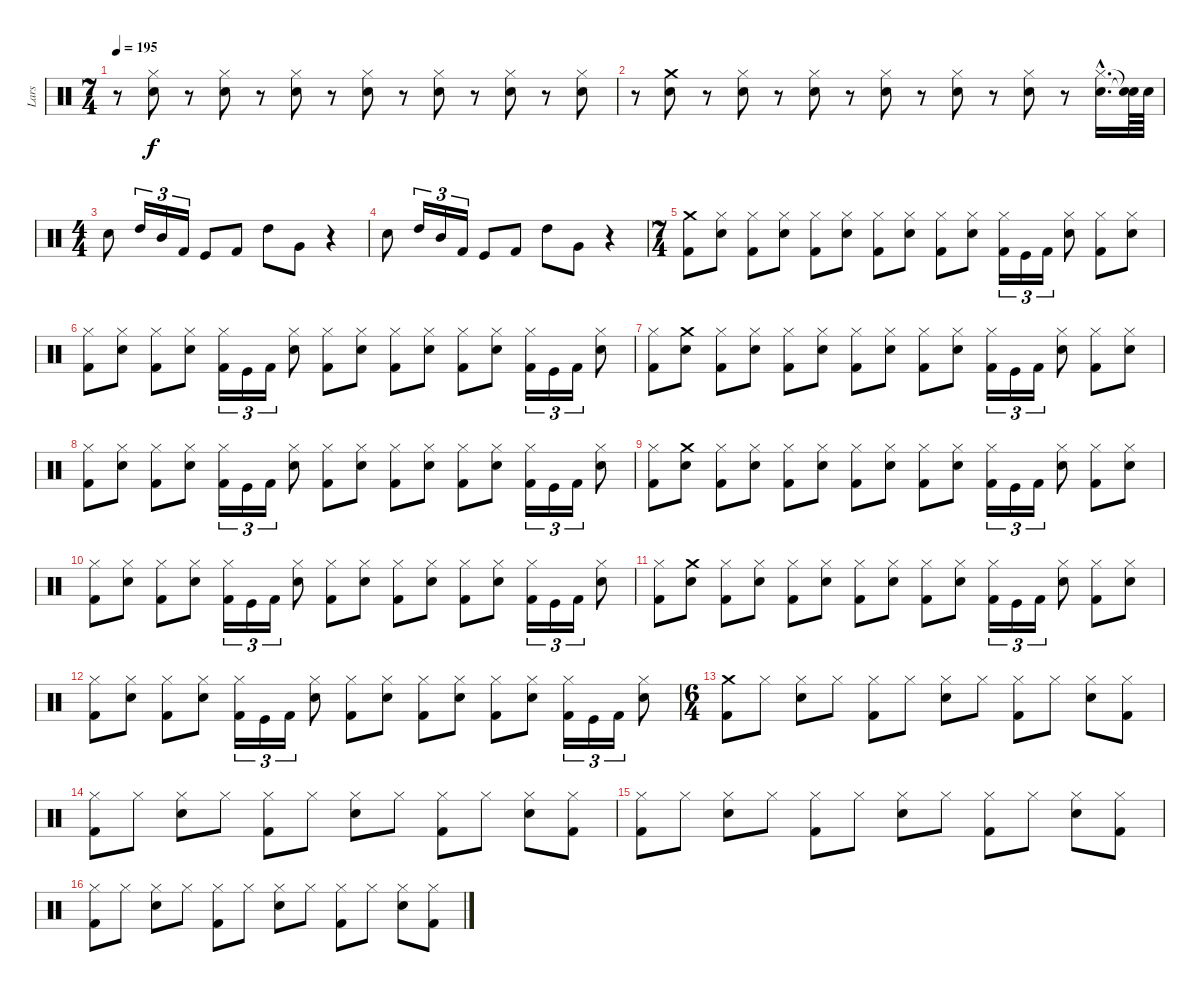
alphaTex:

\track ("Lars" "Lars") {instrument percussion}
\staff {score}
\articulation defaults
\ts (7 4)
\tempo 195
\clef neutral
\ks c
r.8{dy f} ("Snare (hit) 2" "Hi-Hat (closed)").8 r.8 ("Snare (hit) 2" "Hi-Hat (closed)").8 r.8 ("Snare (hit) 2" "Hi-Hat (closed)").8 r.8 ("Snare (hit) 2" "Hi-Hat (closed)").8 r.8 ("Snare (hit) 2" "Hi-Hat (closed)").8 r.8 ("Snare (hit) 2" "Hi-Hat (closed)").8 r.8 ("Snare (hit) 2" "Hi-Hat (closed)").8 |
r.8 ("Crash medium (hit)" "Snare (hit) 2").8 r.8 ("Snare (hit) 2" "Hi-Hat (closed)").8 r.8 ("Snare (hit) 2" "Hi-Hat (closed)").8 r.8 ("Snare (hit) 2" "Hi-Hat (closed)").8 r.8 ("Snare (hit) 2" "Hi-Hat (closed)").8 r.8 ("Snare (hit) 2" "Hi-Hat (closed)").8 r.8 ("Snare (hit) 2"{hac} "Hi-Hat (closed)"{hac}).16{d} ("Snare (hit)"{t} "Snare (hit)"{t}).64 "Snare (hit) 2".64 |
\ts (4 4)
"Snare (hit) 2".8 "High Tom (hit)".16{tu (3 2)} "Mid Tom (hit)".16{tu (3 2)} "Kick (hit) 2".16{tu (3 2)} "Kick (hit)".8 "Kick (hit) 2".8 "High Tom (hit)".8 "Very Low Tom (hit)".8 r.4 |
"Snare (hit) 2".8 "High Tom (hit)".16{tu (3 2)} "Mid Tom (hit)".16{tu (3 2)} "Kick (hit) 2".16{tu (3 2)} "Kick (hit)".8 "Kick (hit) 2".8 "High Tom (hit)".8 "Very Low Tom (hit)".8 r.4 |
\ts (7 4)
("Crash medium (hit)" "Kick (hit) 2").8 ("Snare (hit) 2" "Hi-Hat (closed)").8 ("Hi-Hat (closed)" "Kick (hit) 2").8 ("Snare (hit) 2" "Hi-Hat (closed)").8 ("Hi-Hat (closed)" "Kick (hit) 2").8 ("Snare (hit) 2" "Hi-Hat (closed)").8 ("Hi-Hat (closed)" "Kick (hit) 2").8 ("Snare (hit) 2" "Hi-Hat (closed)").8 ("Hi-Hat (closed)" "Kick (hit) 2").8 ("Snare (hit) 2" "Hi-Hat (closed)").8 ("Hi-Hat (closed)" "Kick (hit) 2").16{tu (3 2)} "Kick (hit)".16{tu (3 2)} "Kick (hit) 2".16{tu (3 2)} ("Snare (hit) 2" "Hi-Hat (closed)").8 ("Hi-Hat (closed)" "Kick (hit) 2").8 ("Snare (hit) 2" "Hi-Hat (closed)").8 |
("Hi-Hat (closed)" "Kick (hit) 2").8 ("Snare (hit) 2" "Hi-Hat (closed)").8 ("Hi-Hat (closed)" "Kick (hit) 2").8 ("Snare (hit) 2" "Hi-Hat (closed)").8 ("Hi-Hat (closed)" "Kick (hit) 2").16{tu (3 2)} "Kick (hit)".16{tu (3 2)} "Kick (hit) 2".16{tu (3 2)} ("Snare (hit) 2" "Hi-Hat (closed)").8 ("Hi-Hat (closed)" "Kick (hit) 2").8 ("Snare (hit) 2" "Hi-Hat (closed)").8 ("Hi-Hat (closed)" "Kick (hit) 2").8 ("Snare (hit) 2" "Hi-Hat (closed)").8 ("Kick (hit) 2" "Hi-Hat (closed)").8 ("Snare (hit) 2" "Hi-Hat (closed)").8 ("Kick (hit) 2" "Hi-Hat (closed)").16{tu (3 2)} "Kick (hit)".16{tu (3 2)} "Kick (hit) 2".16{tu (3 2)} ("Snare (hit) 2" "Hi-Hat (closed)").8 |
("Hi-Hat (closed)" "Kick (hit) 2").8 ("Crash medium (hit)" "Snare (hit) 2").8 ("Hi-Hat (closed)" "Kick (hit) 2").8 ("Snare (hit) 2" "Hi-Hat (closed)").8 ("Hi-Hat (closed)" "Kick (hit) 2").8 ("Snare (hit) 2" "Hi-Hat (closed)").8 ("Hi-Hat (closed)" "Kick (hit) 2").8 ("Snare (hit) 2" "Hi-Hat (closed)").8 ("Hi-Hat (closed)" "Kick (hit) 2").8 ("Snare (hit) 2" "Hi-Hat (closed)").8 ("Hi-Hat (closed)" "Kick (hit) 2").16{tu (3 2)} "Kick (hit)".16{tu (3 2)} "Kick (hit) 2".16{tu (3 2)} ("Snare (hit) 2" "Hi-Hat (closed)").8 ("Hi-Hat (closed)" "Kick (hit) 2").8 ("Snare (hit) 2" "Hi-Hat (closed)").8 |
("Hi-Hat (closed)" "Kick (hit) 2").8 ("Snare (hit) 2" "Hi-Hat (closed)").8 ("Hi-Hat (closed)" "Kick (hit) 2").8 ("Snare (hit) 2" "Hi-Hat (closed)").8 ("Hi-Hat (closed)" "Kick (hit) 2").16{tu (3 2)} "Kick (hit)".16{tu (3 2)} "Kick (hit) 2".16{tu (3 2)} ("Snare (hit) 2" "Hi-Hat (closed)").8 ("Hi-Hat (closed)" "Kick (hit) 2").8 ("Snare (hit) 2" "Hi-Hat (closed)").8 ("Hi-Hat (closed)" "Kick (hit) 2").8 ("Snare (hit) 2" "Hi-Hat (closed)").8 ("Kick (hit) 2" "Hi-Hat (closed)").8 ("Snare (hit) 2" "Hi-Hat (closed)").8 ("Kick (hit) 2" "Hi-Hat (closed)").16{tu (3 2)} "Kick (hit)".16{tu (3 2)} "Kick (hit) 2".16{tu (3 2)} ("Snare (hit) 2" "Hi-Hat (closed)").8 |
("Hi-Hat (closed)" "Kick (hit) 2").8 ("Crash medium (hit)" "Snare (hit) 2").8 ("Hi-Hat (closed)" "Kick (hit) 2").8 ("Snare (hit) 2" "Hi-Hat (closed)").8 ("Hi-Hat (closed)" "Kick (hit) 2").8 ("Snare (hit) 2" "Hi-Hat (closed)").8 ("Hi-Hat (closed)" "Kick (hit) 2").8 ("Snare (hit) 2" "Hi-Hat (closed)").8 ("Hi-Hat (closed)" "Kick (hit) 2").8 ("Snare (hit) 2" "Hi-Hat (closed)").8 ("Hi-Hat (closed)" "Kick (hit) 2").16{tu (3 2)} "Kick (hit)".16{tu (3 2)} "Kick (hit) 2".16{tu (3 2)} ("Snare (hit) 2" "Hi-Hat (closed)").8 ("Hi-Hat (closed)" "Kick (hit) 2").8 ("Snare (hit) 2" "Hi-Hat (closed)").8 |
("Hi-Hat (closed)" "Kick (hit) 2").8 ("Snare (hit) 2" "Hi-Hat (closed)").8 ("Hi-Hat (closed)" "Kick (hit) 2").8 ("Snare (hit) 2" "Hi-Hat (closed)").8 ("Hi-Hat (closed)" "Kick (hit) 2").16{tu (3 2)} "Kick (hit)".16{tu (3 2)} "Kick (hit) 2".16{tu (3 2)} ("Snare (hit) 2" "Hi-Hat (closed)").8 ("Hi-Hat (closed)" "Kick (hit) 2").8 ("Snare (hit) 2" "Hi-Hat (closed)").8 ("Hi-Hat (closed)" "Kick (hit) 2").8 ("Snare (hit) 2" "Hi-Hat (closed)").8 ("Kick (hit) 2" "Hi-Hat (closed)").8 ("Snare (hit) 2" "Hi-Hat (closed)").8 ("Kick (hit) 2" "Hi-Hat (closed)").16{tu (3 2)} "Kick (hit)".16{tu (3 2)} "Kick (hit) 2".16{tu (3 2)} ("Snare (hit) 2" "Hi-Hat (closed)").8 |
("Hi-Hat (closed)" "Kick (hit) 2").8 ("Crash medium (hit)" "Snare (hit) 2").8 ("Hi-Hat (closed)" "Kick (hit) 2").8 ("Snare (hit) 2" "Hi-Hat (closed)").8 ("Hi-Hat (closed)" "Kick (hit) 2").8 ("Snare (hit) 2" "Hi-Hat (closed)").8 ("Hi-Hat (closed)" "Kick (hit) 2").8 ("Snare (hit) 2" "Hi-Hat (closed)").8 ("Hi-Hat (closed)" "Kick (hit) 2").8 ("Snare (hit) 2" "Hi-Hat (closed)").8 ("Hi-Hat (closed)" "Kick (hit) 2").16{tu (3 2)} "Kick (hit)".16{tu (3 2)} "Kick (hit) 2".16{tu (3 2)} ("Snare (hit) 2" "Hi-Hat (closed)").8 ("Hi-Hat (closed)" "Kick (hit) 2").8 ("Snare (hit) 2" "Hi-Hat (closed)").8 |
("Hi-Hat (closed)" "Kick (hit) 2").8 ("Snare (hit) 2" "Hi-Hat (closed)").8 ("Hi-Hat (closed)" "Kick (hit) 2").8 ("Snare (hit) 2" "Hi-Hat (closed)").8 ("Hi-Hat (closed)" "Kick (hit) 2").16{tu (3 2)} "Kick (hit)".16{tu (3 2)} "Kick (hit) 2".16{tu (3 2)} ("Snare (hit) 2" "Hi-Hat (closed)").8 ("Hi-Hat (closed)" "Kick (hit) 2").8 ("Snare (hit) 2" "Hi-Hat (closed)").8 ("Hi-Hat (closed)" "Kick (hit) 2").8 ("Snare (hit) 2" "Hi-Hat (closed)").8 ("Kick (hit) 2" "Hi-Hat (closed)").8 ("Snare (hit) 2" "Hi-Hat (closed)").8 ("Kick (hit) 2" "Hi-Hat (closed)").16{tu (3 2)} "Kick (hit)".16{tu (3 2)} "Kick (hit) 2".16{tu (3 2)} ("Snare (hit) 2" "Hi-Hat (closed)").8 |
\ts (6 4)
("Kick (hit) 2" "Crash medium (hit)").8 "Hi-Hat (closed)".8 ("Snare (hit) 2" "Hi-Hat (closed)").8 "Hi-Hat (closed)".8 ("Kick (hit) 2" "Hi-Hat (closed)").8 "Hi-Hat (closed)".8 ("Snare (hit) 2" "Hi-Hat (closed)").8 "Hi-Hat (closed)".8 ("Kick (hit) 2" "Hi-Hat (closed)").8 "Hi-Hat (closed)".8 ("Snare (hit) 2" "Hi-Hat (closed)").8 ("Kick (hit) 2" "Hi-Hat (closed)").8 |
("Hi-Hat (closed)" "Kick (hit) 2").8 "Hi-Hat (closed)".8 ("Snare (hit) 2" "Hi-Hat (closed)").8 "Hi-Hat (closed)".8 ("Kick (hit) 2" "Hi-Hat (closed)").8 "Hi-Hat (closed)".8 ("Snare (hit) 2" "Hi-Hat (closed)").8 "Hi-Hat (closed)".8 ("Kick (hit) 2" "Hi-Hat (closed)").8 "Hi-Hat (closed)".8 ("Snare (hit) 2" "Hi-Hat (closed)").8 ("Kick (hit) 2" "Hi-Hat (closed)").8 |
("Hi-Hat (closed)" "Kick (hit) 2").8 "Hi-Hat (closed)".8 ("Snare (hit) 2" "Hi-Hat (closed)").8 "Hi-Hat (closed)".8 ("Kick (hit) 2" "Hi-Hat (closed)").8 "Hi-Hat (closed)".8 ("Snare (hit) 2" "Hi-Hat (closed)").8 "Hi-Hat (closed)".8 ("Kick (hit) 2" "Hi-Hat (closed)").8 "Hi-Hat (closed)".8 ("Snare (hit) 2" "Hi-Hat (closed)").8 ("Kick (hit) 2" "Hi-Hat (closed)").8 |
("Hi-Hat (closed)" "Kick (hit) 2").8 "Hi-Hat (closed)".8 ("Snare (hit) 2" "Hi-Hat (closed)").8 "Hi-Hat (closed)".8 ("Kick (hit) 2" "Hi-Hat (closed)").8 "Hi-Hat (closed)".8 ("Snare (hit) 2" "Hi-Hat (closed)").8 "Hi-Hat (closed)".8 ("Kick (hit) 2" "Hi-Hat (closed)").8 "Hi-Hat (closed)".8 ("Snare (hit) 2" "Hi-Hat (closed)").8 ("Kick (hit) 2" "Hi-Hat (closed)").8
